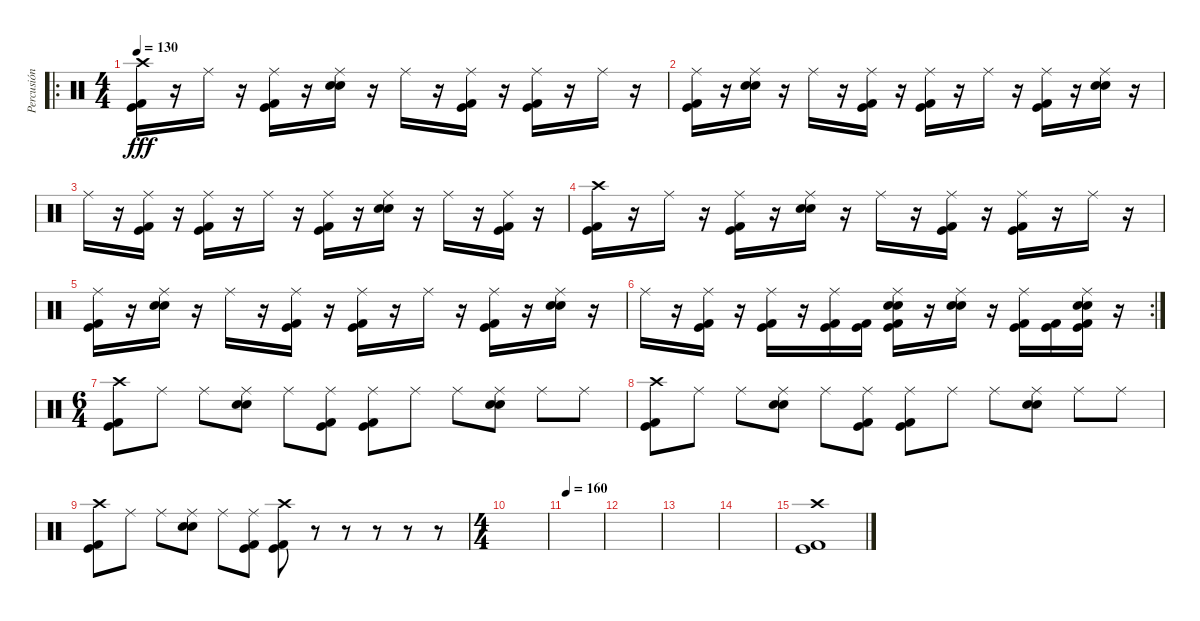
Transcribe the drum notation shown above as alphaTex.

\track ("Percusión" "Percusión") {instrument percussion}
\staff {score}
\articulation defaults
\ro
\ts (4 4)
\tempo 130
\clef neutral
\ks c
("Crash high (hit)" "Kick (hit) 2" "Kick (hit)").16{dy fff} r.16 "Ride (middle)".16 r.16 ("Ride (middle)" "Kick (hit)" "Kick (hit) 2").16 r.16 ("Ride (middle)" "Snare (hit) 2" "Electric Snare (hit)").16 r.16 "Ride (middle)".16 r.16 ("Ride (middle)" "Kick (hit) 2" "Kick (hit)").16 r.16 ("Ride (middle)" "Kick (hit) 2" "Kick (hit)").16 r.16 "Ride (middle)".16 r.16 |
("Ride (middle)" "Kick (hit) 2" "Kick (hit)").16 r.16 ("Ride (middle)" "Snare (hit) 2" "Electric Snare (hit)").16 r.16 "Ride (middle)".16 r.16 ("Ride (middle)" "Kick (hit) 2" "Kick (hit)").16 r.16 ("Ride (middle)" "Kick (hit) 2" "Kick (hit)").16 r.16 "Ride (middle)".16 r.16 ("Ride (middle)" "Kick (hit)" "Kick (hit) 2").16 r.16 ("Ride (middle)" "Snare (hit) 2" "Electric Snare (hit)").16 r.16 |
"Ride (middle)".16 r.16 ("Ride (middle)" "Kick (hit)" "Kick (hit) 2").16 r.16 ("Ride (middle)" "Kick (hit) 2" "Kick (hit)").16 r.16 "Ride (middle)".16 r.16 ("Ride (middle)" "Kick (hit) 2" "Kick (hit)").16 r.16 ("Ride (middle)" "Snare (hit) 2" "Electric Snare (hit)").16 r.16 "Ride (middle)".16 r.16 ("Ride (middle)" "Kick (hit) 2" "Kick (hit)").16 r.16 |
("Crash high (hit)" "Kick (hit) 2" "Kick (hit)").16 r.16 "Ride (middle)".16 r.16 ("Ride (middle)" "Kick (hit)" "Kick (hit) 2").16 r.16 ("Ride (middle)" "Snare (hit) 2" "Electric Snare (hit)").16 r.16 "Ride (middle)".16 r.16 ("Ride (middle)" "Kick (hit) 2" "Kick (hit)").16 r.16 ("Ride (middle)" "Kick (hit) 2" "Kick (hit)").16 r.16 "Ride (middle)".16 r.16 |
("Ride (middle)" "Kick (hit) 2" "Kick (hit)").16 r.16 ("Ride (middle)" "Snare (hit) 2" "Electric Snare (hit)").16 r.16 "Ride (middle)".16 r.16 ("Ride (middle)" "Kick (hit) 2" "Kick (hit)").16 r.16 ("Ride (middle)" "Kick (hit) 2" "Kick (hit)").16 r.16 "Ride (middle)".16 r.16 ("Ride (middle)" "Kick (hit)" "Kick (hit) 2").16 r.16 ("Ride (middle)" "Snare (hit) 2" "Electric Snare (hit)").16 r.16 |
\rc 2 "Ride (middle)".16
r.16 ("Ride (middle)" "Kick (hit)" "Kick (hit) 2").16 r.16 ("Ride (middle)" "Kick (hit) 2" "Kick (hit)").16 r.16 ("Ride (middle)" "Kick (hit) 2" "Kick (hit)").16 ("Kick (hit) 2" "Kick (hit)").16 ("Ride (middle)" "Electric Snare (hit)" "Snare (hit) 2" "Kick (hit) 2" "Kick (hit)").16 r.16 ("Ride (middle)" "Snare (hit) 2" "Electric Snare (hit)").16 r.16 ("Ride (middle)" "Kick (hit) 2" "Kick (hit)").16 ("Kick (hit) 2" "Kick (hit)").16 ("Ride (middle)" "Snare (hit) 2" "Electric Snare (hit)" "Kick (hit) 2" "Kick (hit)").16 r.16 |
\ts (6 4)
("Crash high (hit)" "Kick (hit)" "Kick (hit) 2").8 "Ride (middle)".8 "Ride (middle)".8 ("Ride (middle)" "Electric Snare (hit)" "Snare (hit) 2").8 "Ride (middle)".8 ("Ride (middle)" "Kick (hit)" "Kick (hit) 2").8 ("Ride (middle)" "Kick (hit)" "Kick (hit) 2").8 "Ride (middle)".8 "Ride (middle)".8 ("Ride (middle)" "Electric Snare (hit)" "Snare (hit) 2").8 "Ride (middle)".8 "Ride (middle)".8 |
("Crash high (hit)" "Kick (hit)" "Kick (hit) 2").8 "Ride (middle)".8 "Ride (middle)".8 ("Ride (middle)" "Electric Snare (hit)" "Snare (hit) 2").8 "Ride (middle)".8 ("Ride (middle)" "Kick (hit)" "Kick (hit) 2").8 ("Ride (middle)" "Kick (hit)" "Kick (hit) 2").8 "Ride (middle)".8 "Ride (middle)".8 ("Ride (middle)" "Electric Snare (hit)" "Snare (hit) 2").8 "Ride (middle)".8 "Ride (middle)".8 |
("Crash high (hit)" "Kick (hit)" "Kick (hit) 2").8 "Ride (middle)".8 "Ride (middle)".8 ("Ride (middle)" "Electric Snare (hit)" "Snare (hit) 2").8 "Ride (middle)".8 ("Ride (middle)" "Kick (hit)" "Kick (hit) 2").8 ("Crash high (hit)" "Kick (hit)" "Kick (hit) 2").8 r.8 r.8 r.8 r.8 r.8 |
\ts (4 4)
|
\tempo 160
|
|
|
|
("Crash high (hit)" "Kick (hit)" "Kick (hit) 2").1
